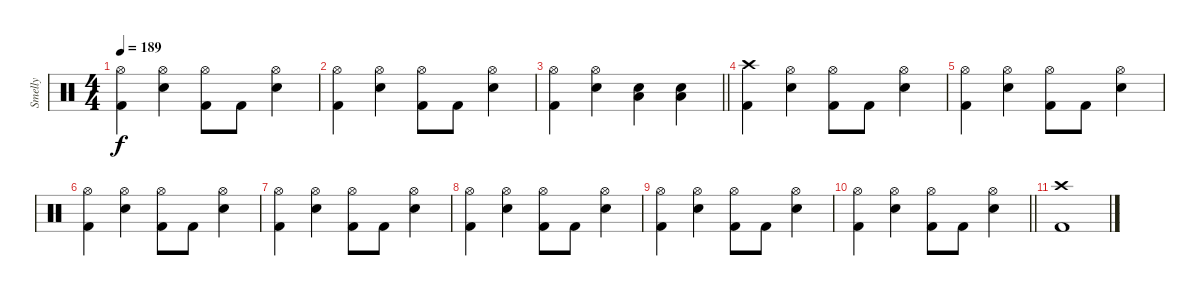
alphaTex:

\track ("Smelly" "Smelly") {instrument percussion}
\staff {score}
\articulation defaults
\ts (4 4)
\tempo 189
\clef neutral
\ks c
("Hi-Hat (open)" "Kick (hit) 2").4{dy f} ("Hi-Hat (open)" "Electric Snare (hit)").4 ("Hi-Hat (open)" "Kick (hit) 2").8 "Kick (hit) 2".8 ("Hi-Hat (open)" "Electric Snare (hit)").4 |
("Hi-Hat (open)" "Kick (hit) 2").4 ("Hi-Hat (open)" "Electric Snare (hit)").4 ("Hi-Hat (open)" "Kick (hit) 2").8 "Kick (hit) 2".8 ("Hi-Hat (open)" "Electric Snare (hit)").4 |
\barLineRight lightlight
("Hi-Hat (open)" "Kick (hit) 2").4 ("Hi-Hat (open)" "Electric Snare (hit)").4 ("Electric Snare (hit)" "Low Floor Tom (hit)").4 ("Electric Snare (hit)" "Low Floor Tom (hit)").4 |
\section ("" "")
("Crash high (hit)" "Kick (hit) 2").4 ("Hi-Hat (open)" "Electric Snare (hit)").4 ("Hi-Hat (open)" "Kick (hit) 2").8 "Kick (hit) 2".8 ("Hi-Hat (open)" "Electric Snare (hit)").4 |
("Hi-Hat (open)" "Kick (hit) 2").4 ("Hi-Hat (open)" "Electric Snare (hit)").4 ("Hi-Hat (open)" "Kick (hit) 2").8 "Kick (hit) 2".8 ("Hi-Hat (open)" "Electric Snare (hit)").4 |
("Hi-Hat (open)" "Kick (hit) 2").4 ("Hi-Hat (open)" "Electric Snare (hit)").4 ("Hi-Hat (open)" "Kick (hit) 2").8 "Kick (hit) 2".8 ("Hi-Hat (open)" "Electric Snare (hit)").4 |
("Hi-Hat (open)" "Kick (hit) 2").4 ("Hi-Hat (open)" "Electric Snare (hit)").4 ("Hi-Hat (open)" "Kick (hit) 2").8 "Kick (hit) 2".8 ("Hi-Hat (open)" "Electric Snare (hit)").4 |
("Hi-Hat (open)" "Kick (hit) 2").4 ("Hi-Hat (open)" "Electric Snare (hit)").4 ("Hi-Hat (open)" "Kick (hit) 2").8 "Kick (hit) 2".8 ("Hi-Hat (open)" "Electric Snare (hit)").4 |
("Hi-Hat (open)" "Kick (hit) 2").4 ("Hi-Hat (open)" "Electric Snare (hit)").4 ("Hi-Hat (open)" "Kick (hit) 2").8 "Kick (hit) 2".8 ("Hi-Hat (open)" "Electric Snare (hit)").4 |
\barLineRight lightlight
("Hi-Hat (open)" "Kick (hit) 2").4 ("Hi-Hat (open)" "Electric Snare (hit)").4 ("Hi-Hat (open)" "Kick (hit) 2").8 "Kick (hit) 2".8 ("Hi-Hat (open)" "Electric Snare (hit)").4 |
\section ("" "")
("Crash high (hit)" "Kick (hit) 2").1
